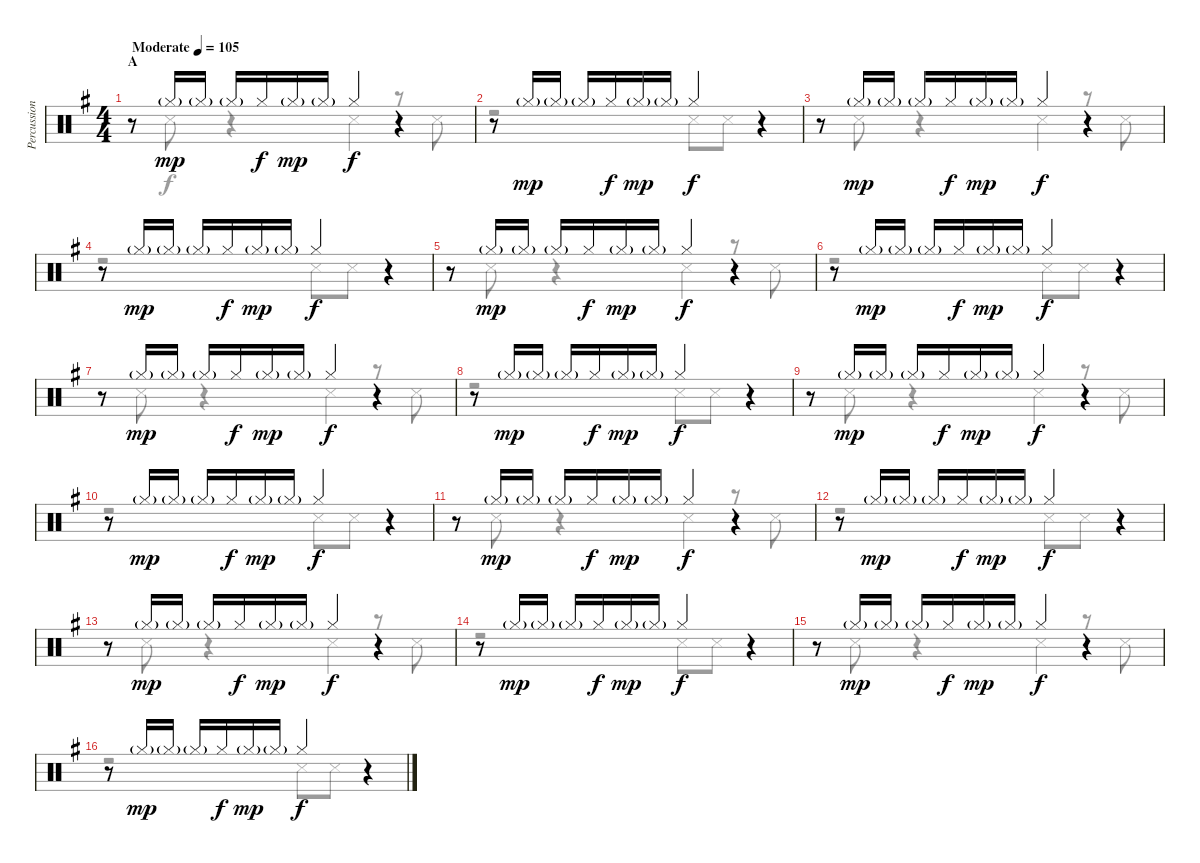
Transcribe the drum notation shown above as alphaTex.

\track ("Percussion" "Percussion") {instrument percussion}
\staff {score}
\articulation defaults
\voice
\ts (4 4)
\section ("" "A")
\tempo (105 "Moderate")
\clef neutral
\ks g
r.8{dy mp} "Hi-Hat (closed)"{g}.16 "Hi-Hat (closed)"{g}.16 "Hi-Hat (closed)"{g}.16 "Hi-Hat (closed)".16{dy f} "Hi-Hat (closed)"{g}.16{dy mp} "Hi-Hat (closed)"{g}.16 "Hi-Hat (closed)".4{dy f} r.4 |
r.8 "Hi-Hat (closed)"{g}.16{dy mp} "Hi-Hat (closed)"{g}.16 "Hi-Hat (closed)"{g}.16 "Hi-Hat (closed)".16{dy f} "Hi-Hat (closed)"{g}.16{dy mp} "Hi-Hat (closed)"{g}.16 "Hi-Hat (closed)".4{dy f} r.4 |
r.8 "Hi-Hat (closed)"{g}.16{dy mp} "Hi-Hat (closed)"{g}.16 "Hi-Hat (closed)"{g}.16 "Hi-Hat (closed)".16{dy f} "Hi-Hat (closed)"{g}.16{dy mp} "Hi-Hat (closed)"{g}.16 "Hi-Hat (closed)".4{dy f} r.4 |
r.8 "Hi-Hat (closed)"{g}.16{dy mp} "Hi-Hat (closed)"{g}.16 "Hi-Hat (closed)"{g}.16 "Hi-Hat (closed)".16{dy f} "Hi-Hat (closed)"{g}.16{dy mp} "Hi-Hat (closed)"{g}.16 "Hi-Hat (closed)".4{dy f} r.4 |
r.8 "Hi-Hat (closed)"{g}.16{dy mp} "Hi-Hat (closed)"{g}.16 "Hi-Hat (closed)"{g}.16 "Hi-Hat (closed)".16{dy f} "Hi-Hat (closed)"{g}.16{dy mp} "Hi-Hat (closed)"{g}.16 "Hi-Hat (closed)".4{dy f} r.4 |
r.8 "Hi-Hat (closed)"{g}.16{dy mp} "Hi-Hat (closed)"{g}.16 "Hi-Hat (closed)"{g}.16 "Hi-Hat (closed)".16{dy f} "Hi-Hat (closed)"{g}.16{dy mp} "Hi-Hat (closed)"{g}.16 "Hi-Hat (closed)".4{dy f} r.4 |
r.8 "Hi-Hat (closed)"{g}.16{dy mp} "Hi-Hat (closed)"{g}.16 "Hi-Hat (closed)"{g}.16 "Hi-Hat (closed)".16{dy f} "Hi-Hat (closed)"{g}.16{dy mp} "Hi-Hat (closed)"{g}.16 "Hi-Hat (closed)".4{dy f} r.4 |
r.8 "Hi-Hat (closed)"{g}.16{dy mp} "Hi-Hat (closed)"{g}.16 "Hi-Hat (closed)"{g}.16 "Hi-Hat (closed)".16{dy f} "Hi-Hat (closed)"{g}.16{dy mp} "Hi-Hat (closed)"{g}.16 "Hi-Hat (closed)".4{dy f} r.4 |
r.8 "Hi-Hat (closed)"{g}.16{dy mp} "Hi-Hat (closed)"{g}.16 "Hi-Hat (closed)"{g}.16 "Hi-Hat (closed)".16{dy f} "Hi-Hat (closed)"{g}.16{dy mp} "Hi-Hat (closed)"{g}.16 "Hi-Hat (closed)".4{dy f} r.4 |
r.8 "Hi-Hat (closed)"{g}.16{dy mp} "Hi-Hat (closed)"{g}.16 "Hi-Hat (closed)"{g}.16 "Hi-Hat (closed)".16{dy f} "Hi-Hat (closed)"{g}.16{dy mp} "Hi-Hat (closed)"{g}.16 "Hi-Hat (closed)".4{dy f} r.4 |
r.8 "Hi-Hat (closed)"{g}.16{dy mp} "Hi-Hat (closed)"{g}.16 "Hi-Hat (closed)"{g}.16 "Hi-Hat (closed)".16{dy f} "Hi-Hat (closed)"{g}.16{dy mp} "Hi-Hat (closed)"{g}.16 "Hi-Hat (closed)".4{dy f} r.4 |
r.8 "Hi-Hat (closed)"{g}.16{dy mp} "Hi-Hat (closed)"{g}.16 "Hi-Hat (closed)"{g}.16 "Hi-Hat (closed)".16{dy f} "Hi-Hat (closed)"{g}.16{dy mp} "Hi-Hat (closed)"{g}.16 "Hi-Hat (closed)".4{dy f} r.4 |
r.8 "Hi-Hat (closed)"{g}.16{dy mp} "Hi-Hat (closed)"{g}.16 "Hi-Hat (closed)"{g}.16 "Hi-Hat (closed)".16{dy f} "Hi-Hat (closed)"{g}.16{dy mp} "Hi-Hat (closed)"{g}.16 "Hi-Hat (closed)".4{dy f} r.4 |
r.8 "Hi-Hat (closed)"{g}.16{dy mp} "Hi-Hat (closed)"{g}.16 "Hi-Hat (closed)"{g}.16 "Hi-Hat (closed)".16{dy f} "Hi-Hat (closed)"{g}.16{dy mp} "Hi-Hat (closed)"{g}.16 "Hi-Hat (closed)".4{dy f} r.4 |
r.8 "Hi-Hat (closed)"{g}.16{dy mp} "Hi-Hat (closed)"{g}.16 "Hi-Hat (closed)"{g}.16 "Hi-Hat (closed)".16{dy f} "Hi-Hat (closed)"{g}.16{dy mp} "Hi-Hat (closed)"{g}.16 "Hi-Hat (closed)".4{dy f} r.4 |
r.8 "Hi-Hat (closed)"{g}.16{dy mp} "Hi-Hat (closed)"{g}.16 "Hi-Hat (closed)"{g}.16 "Hi-Hat (closed)".16{dy f} "Hi-Hat (closed)"{g}.16{dy mp} "Hi-Hat (closed)"{g}.16 "Hi-Hat (closed)".4{dy f} r.4
\voice
\clef neutral
\ottava regular
\simile none
\ks g
r.8{dy f} "Snare (side stick) 3".8 r.4 "Snare (side stick) 3".4 r.8 "Snare (side stick) 3".8 |
r.2 "Snare (side stick) 3".8 "Snare (side stick) 3".8 r.4 |
r.8 "Snare (side stick) 3".8 r.4 "Snare (side stick) 3".4 r.8 "Snare (side stick) 3".8 |
r.2 "Snare (side stick) 3".8 "Snare (side stick) 3".8 r.4 |
r.8 "Snare (side stick) 3".8 r.4 "Snare (side stick) 3".4 r.8 "Snare (side stick) 3".8 |
r.2 "Snare (side stick) 3".8 "Snare (side stick) 3".8 r.4 |
r.8 "Snare (side stick) 3".8 r.4 "Snare (side stick) 3".4 r.8 "Snare (side stick) 3".8 |
r.2 "Snare (side stick) 3".8 "Snare (side stick) 3".8 r.4 |
r.8 "Snare (side stick) 3".8 r.4 "Snare (side stick) 3".4 r.8 "Snare (side stick) 3".8 |
r.2 "Snare (side stick) 3".8 "Snare (side stick) 3".8 r.4 |
r.8 "Snare (side stick) 3".8 r.4 "Snare (side stick) 3".4 r.8 "Snare (side stick) 3".8 |
r.2 "Snare (side stick) 3".8 "Snare (side stick) 3".8 r.4 |
r.8 "Snare (side stick) 3".8 r.4 "Snare (side stick) 3".4 r.8 "Snare (side stick) 3".8 |
r.2 "Snare (side stick) 3".8 "Snare (side stick) 3".8 r.4 |
r.8 "Snare (side stick) 3".8 r.4 "Snare (side stick) 3".4 r.8 "Snare (side stick) 3".8 |
r.2 "Snare (side stick) 3".8 "Snare (side stick) 3".8 r.4
